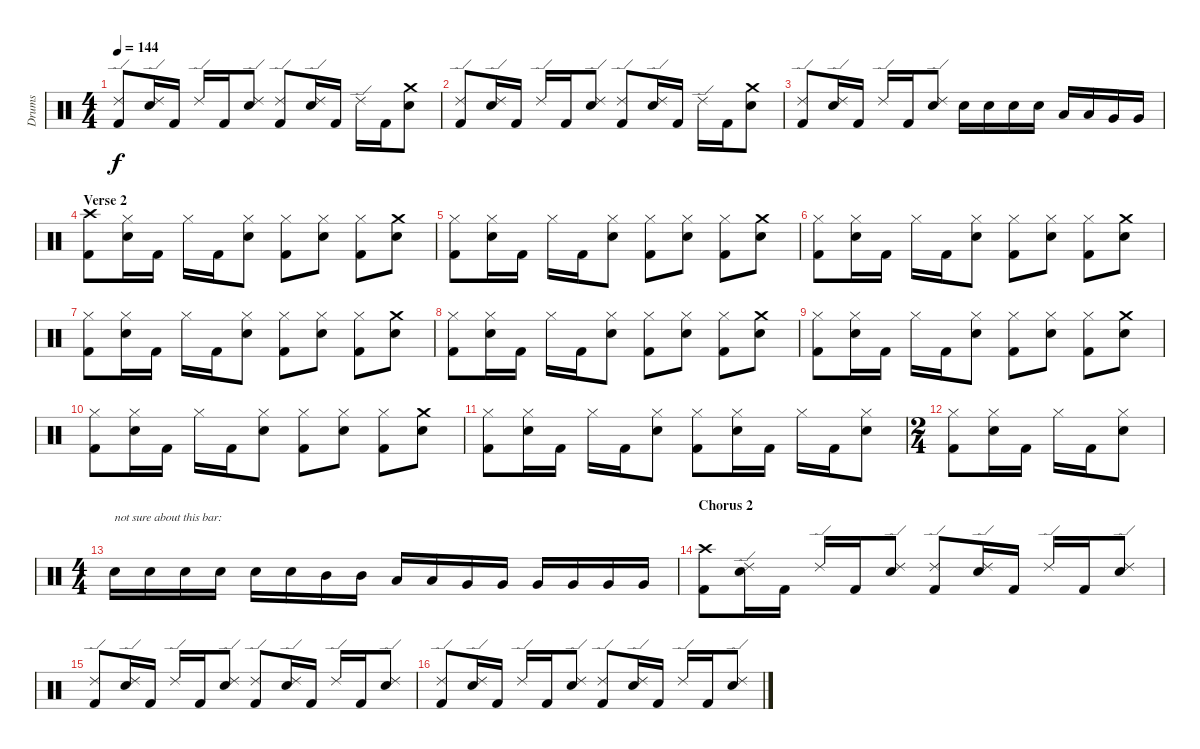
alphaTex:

\track ("Drums" "Drums") {instrument percussion}
\staff {score}
\articulation defaults
\ts (4 4)
\tempo 144
\clef neutral
\ks c
("Ride (edge) 2" "Kick (hit) 2").8{dy f} ("Ride (edge) 2" "Electric Snare (hit)").16 "Kick (hit) 2".16 "Ride (edge) 2".16 "Kick (hit) 2".16 ("Ride (edge) 2" "Electric Snare (hit)").8 ("Ride (edge) 2" "Kick (hit) 2").8 ("Ride (edge) 2" "Electric Snare (hit)").16 "Kick (hit) 2".16 "Ride (edge) 2".16 "Kick (hit) 2".16 ("Crash medium (hit)" "Electric Snare (hit)").8 |
("Ride (edge) 2" "Kick (hit) 2").8 ("Ride (edge) 2" "Electric Snare (hit)").16 "Kick (hit) 2".16 "Ride (edge) 2".16 "Kick (hit) 2".16 ("Ride (edge) 2" "Electric Snare (hit)").8 ("Ride (edge) 2" "Kick (hit) 2").8 ("Ride (edge) 2" "Electric Snare (hit)").16 "Kick (hit) 2".16 "Ride (edge) 2".16 "Kick (hit) 2".16 ("Crash medium (hit)" "Electric Snare (hit)").8 |
("Ride (edge) 2" "Kick (hit) 2").8 ("Ride (edge) 2" "Electric Snare (hit)").16 "Kick (hit) 2".16 "Ride (edge) 2".16 "Kick (hit) 2".16 ("Ride (edge) 2" "Electric Snare (hit)").8 "Electric Snare (hit)".16 "Electric Snare (hit)".16 "Electric Snare (hit)".16 "Electric Snare (hit)".16 "Low Tom (hit)".16 "Low Tom (hit)".16 "Very Low Tom (hit)".16 "Very Low Tom (hit)".16 |
\section ("" "Verse 2")
("Crash high (hit)" "Kick (hit) 2").8 ("Hi-Hat (closed)" "Electric Snare (hit)").16 "Kick (hit) 2".16 "Hi-Hat (closed)".16 "Kick (hit) 2".16 ("Hi-Hat (closed)" "Electric Snare (hit)").8 ("Hi-Hat (closed)" "Kick (hit) 2").8 ("Hi-Hat (closed)" "Electric Snare (hit)").8 ("Hi-Hat (closed)" "Kick (hit) 2").8 ("Crash medium (hit)" "Electric Snare (hit)").8 |
("Hi-Hat (closed)" "Kick (hit) 2").8 ("Hi-Hat (closed)" "Electric Snare (hit)").16 "Kick (hit) 2".16 "Hi-Hat (closed)".16 "Kick (hit) 2".16 ("Hi-Hat (closed)" "Electric Snare (hit)").8 ("Hi-Hat (closed)" "Kick (hit) 2").8 ("Hi-Hat (closed)" "Electric Snare (hit)").8 ("Hi-Hat (closed)" "Kick (hit) 2").8 ("Crash medium (hit)" "Electric Snare (hit)").8 |
("Hi-Hat (closed)" "Kick (hit) 2").8 ("Hi-Hat (closed)" "Electric Snare (hit)").16 "Kick (hit) 2".16 "Hi-Hat (closed)".16 "Kick (hit) 2".16 ("Hi-Hat (closed)" "Electric Snare (hit)").8 ("Hi-Hat (closed)" "Kick (hit) 2").8 ("Hi-Hat (closed)" "Electric Snare (hit)").8 ("Hi-Hat (closed)" "Kick (hit) 2").8 ("Crash medium (hit)" "Electric Snare (hit)").8 |
("Hi-Hat (closed)" "Kick (hit) 2").8 ("Hi-Hat (closed)" "Electric Snare (hit)").16 "Kick (hit) 2".16 "Hi-Hat (closed)".16 "Kick (hit) 2".16 ("Hi-Hat (closed)" "Electric Snare (hit)").8 ("Hi-Hat (closed)" "Kick (hit) 2").8 ("Hi-Hat (closed)" "Electric Snare (hit)").8 ("Hi-Hat (closed)" "Kick (hit) 2").8 ("Crash medium (hit)" "Electric Snare (hit)").8 |
("Hi-Hat (closed)" "Kick (hit) 2").8 ("Hi-Hat (closed)" "Electric Snare (hit)").16 "Kick (hit) 2".16 "Hi-Hat (closed)".16 "Kick (hit) 2".16 ("Hi-Hat (closed)" "Electric Snare (hit)").8 ("Hi-Hat (closed)" "Kick (hit) 2").8 ("Hi-Hat (closed)" "Electric Snare (hit)").8 ("Hi-Hat (closed)" "Kick (hit) 2").8 ("Crash medium (hit)" "Electric Snare (hit)").8 |
("Hi-Hat (closed)" "Kick (hit) 2").8 ("Hi-Hat (closed)" "Electric Snare (hit)").16 "Kick (hit) 2".16 "Hi-Hat (closed)".16 "Kick (hit) 2".16 ("Hi-Hat (closed)" "Electric Snare (hit)").8 ("Hi-Hat (closed)" "Kick (hit) 2").8 ("Hi-Hat (closed)" "Electric Snare (hit)").8 ("Hi-Hat (closed)" "Kick (hit) 2").8 ("Crash medium (hit)" "Electric Snare (hit)").8 |
("Hi-Hat (closed)" "Kick (hit) 2").8 ("Hi-Hat (closed)" "Electric Snare (hit)").16 "Kick (hit) 2".16 "Hi-Hat (closed)".16 "Kick (hit) 2".16 ("Hi-Hat (closed)" "Electric Snare (hit)").8 ("Hi-Hat (closed)" "Kick (hit) 2").8 ("Hi-Hat (closed)" "Electric Snare (hit)").8 ("Hi-Hat (closed)" "Kick (hit) 2").8 ("Crash medium (hit)" "Electric Snare (hit)").8 |
("Hi-Hat (closed)" "Kick (hit) 2").8 ("Hi-Hat (closed)" "Electric Snare (hit)").16 "Kick (hit) 2".16 "Hi-Hat (closed)".16 "Kick (hit) 2".16 ("Hi-Hat (closed)" "Electric Snare (hit)").8 ("Hi-Hat (closed)" "Kick (hit) 2").8 ("Hi-Hat (closed)" "Electric Snare (hit)").16 "Kick (hit) 2".16 "Hi-Hat (closed)".16 "Kick (hit) 2".16 ("Hi-Hat (closed)" "Electric Snare (hit)").8 |
\ts (2 4)
("Hi-Hat (closed)" "Kick (hit) 2").8 ("Hi-Hat (closed)" "Electric Snare (hit)").16 "Kick (hit) 2".16 "Hi-Hat (closed)".16 "Kick (hit) 2".16 ("Hi-Hat (closed)" "Electric Snare (hit)").8 |
\ts (4 4)
"Electric Snare (hit)".16{txt "not sure about this bar:"} "Electric Snare (hit)".16 "Electric Snare (hit)".16 "Electric Snare (hit)".16 "Electric Snare (hit)".16 "Electric Snare (hit)".16 "Mid Tom (hit)".16 "Mid Tom (hit)".16 "Low Tom (hit)".16 "Low Tom (hit)".16 "Very Low Tom (hit)".16 "Very Low Tom (hit)".16 "Very Low Tom (hit)".16 "Very Low Tom (hit)".16 "Very Low Tom (hit)".16 "Very Low Tom (hit)".16 |
\section ("" "Chorus 2")
("Crash high (hit)" "Kick (hit) 2").8 ("Ride (edge) 2" "Electric Snare (hit)").16 "Kick (hit) 2".16 "Ride (edge) 2".16 "Kick (hit) 2".16 ("Ride (edge) 2" "Electric Snare (hit)").8 ("Ride (edge) 2" "Kick (hit) 2").8 ("Ride (edge) 2" "Electric Snare (hit)").16 "Kick (hit) 2".16 "Ride (edge) 2".16 "Kick (hit) 2".16 ("Ride (edge) 2" "Electric Snare (hit)").8 |
("Ride (edge) 2" "Kick (hit) 2").8 ("Ride (edge) 2" "Electric Snare (hit)").16 "Kick (hit) 2".16 "Ride (edge) 2".16 "Kick (hit) 2".16 ("Ride (edge) 2" "Electric Snare (hit)").8 ("Ride (edge) 2" "Kick (hit) 2").8 ("Ride (edge) 2" "Electric Snare (hit)").16 "Kick (hit) 2".16 "Ride (edge) 2".16 "Kick (hit) 2".16 ("Ride (edge) 2" "Electric Snare (hit)").8 |
("Ride (edge) 2" "Kick (hit) 2").8 ("Ride (edge) 2" "Electric Snare (hit)").16 "Kick (hit) 2".16 "Ride (edge) 2".16 "Kick (hit) 2".16 ("Ride (edge) 2" "Electric Snare (hit)").8 ("Ride (edge) 2" "Kick (hit) 2").8 ("Ride (edge) 2" "Electric Snare (hit)").16 "Kick (hit) 2".16 "Ride (edge) 2".16 "Kick (hit) 2".16 ("Ride (edge) 2" "Electric Snare (hit)").8
